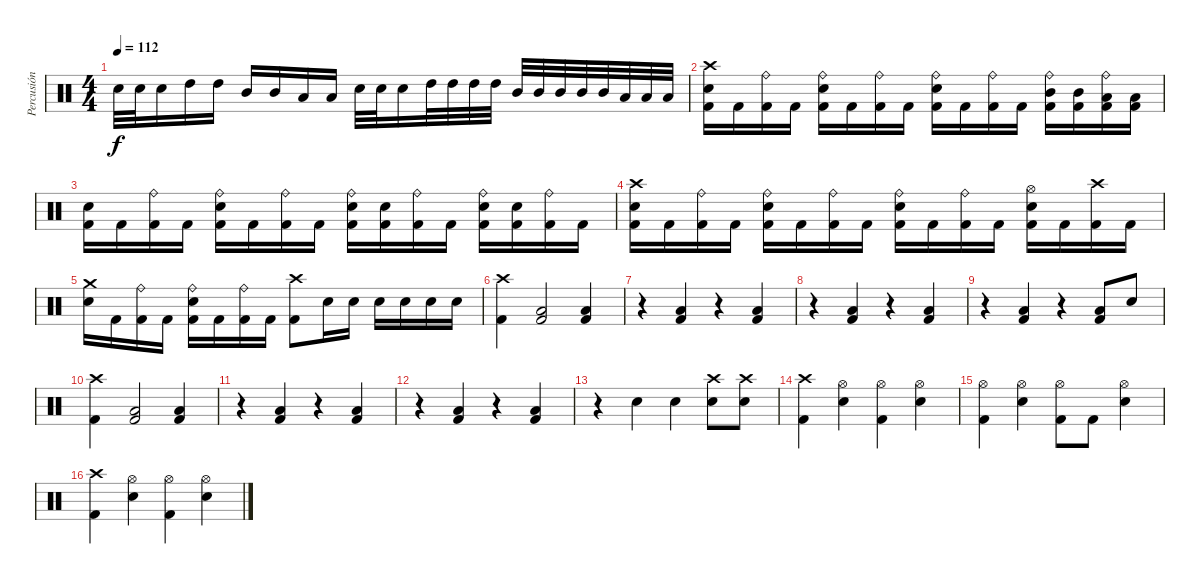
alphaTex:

\track ("Percusión" "Percusión") {instrument percussion}
\staff {score}
\articulation defaults
\ts (4 4)
\tempo 112
\clef neutral
\ks c "Snare (hit) 2".32{dy f} "Snare (hit) 2".32 "Snare (hit) 2".16 "High Tom (hit)".16 "High Tom (hit)".16 "Mid Tom (hit)".16 "Mid Tom (hit)".16 "Low Tom (hit)".16 "Low Tom (hit)".16 "Snare (hit) 2".32 "Snare (hit) 2".32 "Snare (hit) 2".16 "High Tom (hit)".32 "High Tom (hit)".32 "High Tom (hit)".32 "High Tom (hit)".32 "Mid Tom (hit)".32 "Mid Tom (hit)".32 "Mid Tom (hit)".32 "Mid Tom (hit)".32 "Mid Tom (hit)".32 "Low Tom (hit)".32 "Low Tom (hit)".32 "Low Tom (hit)".32
|
("Snare (hit) 2" "Crash high (hit)" "Kick (hit) 2").16 "Kick (hit) 2".16 ("Ride (bell)" "Kick (hit) 2").16 "Kick (hit) 2".16 ("Ride (bell)" "Snare (hit) 2" "Kick (hit) 2").16 "Kick (hit) 2".16 ("Ride (bell)" "Kick (hit) 2").16 "Kick (hit) 2".16 ("Ride (bell)" "Snare (hit) 2" "Kick (hit) 2").16 "Kick (hit) 2".16 ("Ride (bell)" "Kick (hit) 2").16 "Kick (hit) 2".16 ("Ride (bell)" "Mid Tom (hit)" "Kick (hit) 2").16 ("Mid Tom (hit)" "Kick (hit) 2").16 ("Ride (bell)" "Low Tom (hit)" "Kick (hit) 2").16 ("Low Tom (hit)" "Kick (hit) 2").16 |
("Snare (hit) 2" "Kick (hit) 2").16 "Kick (hit) 2".16 ("Ride (bell)" "Kick (hit) 2").16 "Kick (hit) 2".16 ("Ride (bell)" "Snare (hit) 2" "Kick (hit) 2").16 "Kick (hit) 2".16 ("Ride (bell)" "Kick (hit) 2").16 "Kick (hit) 2".16 ("Ride (bell)" "Snare (hit) 2" "Kick (hit) 2").16 ("Snare (hit) 2" "Kick (hit) 2").16 ("Ride (bell)" "Kick (hit) 2").16 "Kick (hit) 2".16 ("Ride (bell)" "Snare (hit) 2" "Kick (hit) 2").16 ("Snare (hit) 2" "Kick (hit) 2").16 ("Ride (bell)" "Kick (hit) 2").16 "Kick (hit) 2".16 |
("Snare (hit) 2" "Crash high (hit)" "Kick (hit) 2").16 "Kick (hit) 2".16 ("Ride (bell)" "Kick (hit) 2").16 "Kick (hit) 2".16 ("Ride (bell)" "Snare (hit) 2" "Kick (hit) 2").16 "Kick (hit) 2".16 ("Ride (bell)" "Kick (hit) 2").16 "Kick (hit) 2".16 ("Ride (bell)" "Snare (hit) 2" "Kick (hit) 2").16 "Kick (hit) 2".16 ("Ride (bell)" "Kick (hit) 2").16 "Kick (hit) 2".16 ("Hi-Hat (open)" "Snare (hit) 2" "Kick (hit) 2").16 "Kick (hit) 2".16 ("Kick (hit) 2" "Crash high (hit)").16 "Kick (hit) 2".16 |
("Snare (hit) 2" "Crash medium (hit)").16 "Kick (hit) 2".16 ("Ride (bell)" "Kick (hit) 2").16 "Kick (hit) 2".16 ("Ride (bell)" "Snare (hit) 2" "Kick (hit) 2").16 "Kick (hit) 2".16 ("Ride (bell)" "Kick (hit) 2").16 "Kick (hit) 2".16 ("Crash high (hit)" "Kick (hit) 2").8 "Snare (hit) 2".16 "Snare (hit) 2".16 "Snare (hit) 2".16 "Snare (hit) 2".16 "Snare (hit) 2".16 "Snare (hit) 2".16 |
("Kick (hit) 2" "Crash high (hit)").4 ("Low Tom (hit)" "Kick (hit) 2").2 ("Low Tom (hit)" "Kick (hit) 2").4 |
r.4 ("Low Tom (hit)" "Kick (hit) 2").4 r.4 ("Low Tom (hit)" "Kick (hit) 2").4 |
r.4 ("Low Tom (hit)" "Kick (hit) 2").4 r.4 ("Low Tom (hit)" "Kick (hit) 2").4 |
r.4 ("Low Tom (hit)" "Kick (hit) 2").4 r.4 ("Low Tom (hit)" "Kick (hit) 2").8 "Snare (hit) 2".8 |
("Kick (hit) 2" "Crash high (hit)").4 ("Low Tom (hit)" "Kick (hit) 2").2 ("Low Tom (hit)" "Kick (hit) 2").4 |
r.4 ("Low Tom (hit)" "Kick (hit) 2").4 r.4 ("Low Tom (hit)" "Kick (hit) 2").4 |
r.4 ("Low Tom (hit)" "Kick (hit) 2").4 r.4 ("Low Tom (hit)" "Kick (hit) 2").4 |
r.4 "Snare (hit) 2".4 "Snare (hit) 2".4 ("Crash high (hit)" "Snare (hit) 2").8 ("Crash high (hit)" "Snare (hit) 2").8 |
("Crash high (hit)" "Kick (hit) 2").4 ("Hi-Hat (open)" "Snare (hit) 2").4 ("Hi-Hat (open)" "Kick (hit) 2").4 ("Hi-Hat (open)" "Snare (hit) 2").4 |
("Hi-Hat (open)" "Kick (hit) 2").4 ("Hi-Hat (open)" "Snare (hit) 2").4 ("Hi-Hat (open)" "Kick (hit) 2").8 "Kick (hit) 2".8 ("Hi-Hat (open)" "Snare (hit) 2").4 |
("Crash high (hit)" "Kick (hit) 2").4 ("Hi-Hat (open)" "Snare (hit) 2").4 ("Hi-Hat (open)" "Kick (hit) 2").4 ("Hi-Hat (open)" "Snare (hit) 2").4
